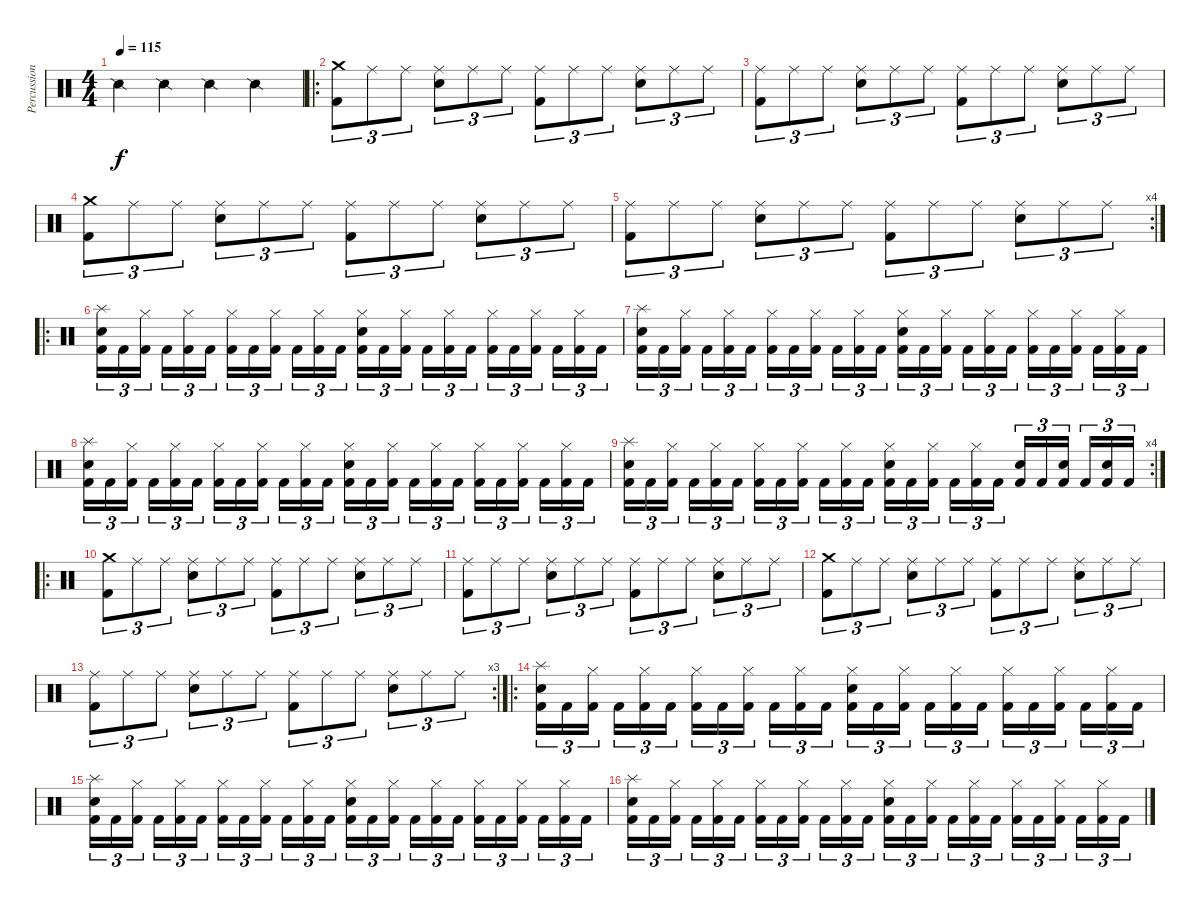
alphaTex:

\track ("Percussions" "Percussion") {instrument percussion}
\staff {score}
\articulation defaults
\ts (4 4)
\tempo 115
\clef neutral
\ks c "Snare (side stick) 2".4{dy f} "Snare (side stick) 2".4 "Snare (side stick) 2".4 "Snare (side stick) 2".4
|
\ro
("Crash medium (hit)" "Kick (hit) 2").8{tu (3 2)} "Ride (middle)".8{tu (3 2)} "Ride (middle)".8{tu (3 2)} ("Ride (middle)" "Snare (hit) 2").8{tu (3 2)} "Ride (middle)".8{tu (3 2)} "Ride (middle)".8{tu (3 2)} ("Ride (middle)" "Kick (hit) 2").8{tu (3 2)} "Ride (middle)".8{tu (3 2)} "Ride (middle)".8{tu (3 2)} ("Ride (middle)" "Snare (hit) 2").8{tu (3 2)} "Ride (middle)".8{tu (3 2)} "Ride (middle)".8{tu (3 2)} |
("Ride (middle)" "Kick (hit) 2").8{tu (3 2)} "Ride (middle)".8{tu (3 2)} "Ride (middle)".8{tu (3 2)} ("Ride (middle)" "Snare (hit) 2").8{tu (3 2)} "Ride (middle)".8{tu (3 2)} "Ride (middle)".8{tu (3 2)} ("Ride (middle)" "Kick (hit) 2").8{tu (3 2)} "Ride (middle)".8{tu (3 2)} "Ride (middle)".8{tu (3 2)} ("Ride (middle)" "Snare (hit) 2").8{tu (3 2)} "Ride (middle)".8{tu (3 2)} "Ride (middle)".8{tu (3 2)} |
("Crash medium (hit)" "Kick (hit) 2").8{tu (3 2)} "Ride (middle)".8{tu (3 2)} "Ride (middle)".8{tu (3 2)} ("Ride (middle)" "Snare (hit) 2").8{tu (3 2)} "Ride (middle)".8{tu (3 2)} "Ride (middle)".8{tu (3 2)} ("Ride (middle)" "Kick (hit) 2").8{tu (3 2)} "Ride (middle)".8{tu (3 2)} "Ride (middle)".8{tu (3 2)} ("Ride (middle)" "Snare (hit) 2").8{tu (3 2)} "Ride (middle)".8{tu (3 2)} "Ride (middle)".8{tu (3 2)} |
\rc 4
("Ride (middle)" "Kick (hit) 2").8{tu (3 2)} "Ride (middle)".8{tu (3 2)} "Ride (middle)".8{tu (3 2)} ("Ride (middle)" "Snare (hit) 2").8{tu (3 2)} "Ride (middle)".8{tu (3 2)} "Ride (middle)".8{tu (3 2)} ("Ride (middle)" "Kick (hit) 2").8{tu (3 2)} "Ride (middle)".8{tu (3 2)} "Ride (middle)".8{tu (3 2)} ("Ride (middle)" "Snare (hit) 2").8{tu (3 2)} "Ride (middle)".8{tu (3 2)} "Ride (middle)".8{tu (3 2)} |
\ro
("Splash (hit)" "Snare (hit) 2" "Kick (hit) 2").16{tu (3 2)} "Kick (hit) 2".16{tu (3 2)} ("Hi-Hat (closed)" "Kick (hit) 2").16{tu (3 2)} "Kick (hit) 2".16{tu (3 2)} ("Hi-Hat (closed)" "Kick (hit) 2").16{tu (3 2)} "Kick (hit) 2".16{tu (3 2)} ("Hi-Hat (closed)" "Kick (hit) 2").16{tu (3 2)} "Kick (hit) 2".16{tu (3 2)} ("Hi-Hat (closed)" "Kick (hit) 2").16{tu (3 2)} "Kick (hit) 2".16{tu (3 2)} ("Hi-Hat (closed)" "Kick (hit) 2").16{tu (3 2)} "Kick (hit) 2".16{tu (3 2)} ("Hi-Hat (closed)" "Snare (hit) 2" "Kick (hit) 2").16{tu (3 2)} "Kick (hit) 2".16{tu (3 2)} ("Hi-Hat (closed)" "Kick (hit) 2").16{tu (3 2)} "Kick (hit) 2".16{tu (3 2)} ("Hi-Hat (closed)" "Kick (hit) 2").16{tu (3 2)} "Kick (hit) 2".16{tu (3 2)} ("Hi-Hat (closed)" "Kick (hit) 2").16{tu (3 2)} "Kick (hit) 2".16{tu (3 2)} ("Hi-Hat (closed)" "Kick (hit) 2").16{tu (3 2)} "Kick (hit) 2".16{tu (3 2)} ("Hi-Hat (closed)" "Kick (hit) 2").16{tu (3 2)} "Kick (hit) 2".16{tu (3 2)} |
("Splash (hit)" "Snare (hit) 2" "Kick (hit) 2").16{tu (3 2)} "Kick (hit) 2".16{tu (3 2)} ("Hi-Hat (closed)" "Kick (hit) 2").16{tu (3 2)} "Kick (hit) 2".16{tu (3 2)} ("Hi-Hat (closed)" "Kick (hit) 2").16{tu (3 2)} "Kick (hit) 2".16{tu (3 2)} ("Hi-Hat (closed)" "Kick (hit) 2").16{tu (3 2)} "Kick (hit) 2".16{tu (3 2)} ("Hi-Hat (closed)" "Kick (hit) 2").16{tu (3 2)} "Kick (hit) 2".16{tu (3 2)} ("Hi-Hat (closed)" "Kick (hit) 2").16{tu (3 2)} "Kick (hit) 2".16{tu (3 2)} ("Hi-Hat (closed)" "Snare (hit) 2" "Kick (hit) 2").16{tu (3 2)} "Kick (hit) 2".16{tu (3 2)} ("Hi-Hat (closed)" "Kick (hit) 2").16{tu (3 2)} "Kick (hit) 2".16{tu (3 2)} ("Hi-Hat (closed)" "Kick (hit) 2").16{tu (3 2)} "Kick (hit) 2".16{tu (3 2)} ("Hi-Hat (closed)" "Kick (hit) 2").16{tu (3 2)} "Kick (hit) 2".16{tu (3 2)} ("Hi-Hat (closed)" "Kick (hit) 2").16{tu (3 2)} "Kick (hit) 2".16{tu (3 2)} ("Hi-Hat (closed)" "Kick (hit) 2").16{tu (3 2)} "Kick (hit) 2".16{tu (3 2)} |
("Splash (hit)" "Snare (hit) 2" "Kick (hit) 2").16{tu (3 2)} "Kick (hit) 2".16{tu (3 2)} ("Hi-Hat (closed)" "Kick (hit) 2").16{tu (3 2)} "Kick (hit) 2".16{tu (3 2)} ("Hi-Hat (closed)" "Kick (hit) 2").16{tu (3 2)} "Kick (hit) 2".16{tu (3 2)} ("Hi-Hat (closed)" "Kick (hit) 2").16{tu (3 2)} "Kick (hit) 2".16{tu (3 2)} ("Hi-Hat (closed)" "Kick (hit) 2").16{tu (3 2)} "Kick (hit) 2".16{tu (3 2)} ("Hi-Hat (closed)" "Kick (hit) 2").16{tu (3 2)} "Kick (hit) 2".16{tu (3 2)} ("Hi-Hat (closed)" "Snare (hit) 2" "Kick (hit) 2").16{tu (3 2)} "Kick (hit) 2".16{tu (3 2)} ("Hi-Hat (closed)" "Kick (hit) 2").16{tu (3 2)} "Kick (hit) 2".16{tu (3 2)} ("Hi-Hat (closed)" "Kick (hit) 2").16{tu (3 2)} "Kick (hit) 2".16{tu (3 2)} ("Hi-Hat (closed)" "Kick (hit) 2").16{tu (3 2)} "Kick (hit) 2".16{tu (3 2)} ("Hi-Hat (closed)" "Kick (hit) 2").16{tu (3 2)} "Kick (hit) 2".16{tu (3 2)} ("Hi-Hat (closed)" "Kick (hit) 2").16{tu (3 2)} "Kick (hit) 2".16{tu (3 2)} |
\rc 4
("Splash (hit)" "Snare (hit) 2" "Kick (hit) 2").16{tu (3 2)} "Kick (hit) 2".16{tu (3 2)} ("Hi-Hat (closed)" "Kick (hit) 2").16{tu (3 2)} "Kick (hit) 2".16{tu (3 2)} ("Hi-Hat (closed)" "Kick (hit) 2").16{tu (3 2)} "Kick (hit) 2".16{tu (3 2)} ("Hi-Hat (closed)" "Kick (hit) 2").16{tu (3 2)} "Kick (hit) 2".16{tu (3 2)} ("Hi-Hat (closed)" "Kick (hit) 2").16{tu (3 2)} "Kick (hit) 2".16{tu (3 2)} ("Hi-Hat (closed)" "Kick (hit) 2").16{tu (3 2)} "Kick (hit) 2".16{tu (3 2)} ("Hi-Hat (closed)" "Snare (hit) 2" "Kick (hit) 2").16{tu (3 2)} "Kick (hit) 2".16{tu (3 2)} ("Hi-Hat (closed)" "Kick (hit) 2").16{tu (3 2)} "Kick (hit) 2".16{tu (3 2)} ("Hi-Hat (closed)" "Kick (hit) 2").16{tu (3 2)} "Kick (hit) 2".16{tu (3 2)} ("Snare (hit) 2" "Kick (hit) 2").16{tu (3 2)} "Kick (hit) 2".16{tu (3 2)} ("Snare (hit) 2" "Kick (hit) 2").16{tu (3 2)} "Kick (hit) 2".16{tu (3 2)} ("Snare (hit) 2" "Kick (hit) 2").16{tu (3 2)} "Kick (hit) 2".16{tu (3 2)} |
\ro
("Crash medium (hit)" "Kick (hit) 2").8{tu (3 2)} "Ride (middle)".8{tu (3 2)} "Ride (middle)".8{tu (3 2)} ("Ride (middle)" "Snare (hit) 2").8{tu (3 2)} "Ride (middle)".8{tu (3 2)} "Ride (middle)".8{tu (3 2)} ("Ride (middle)" "Kick (hit) 2").8{tu (3 2)} "Ride (middle)".8{tu (3 2)} "Ride (middle)".8{tu (3 2)} ("Ride (middle)" "Snare (hit) 2").8{tu (3 2)} "Ride (middle)".8{tu (3 2)} "Ride (middle)".8{tu (3 2)} |
("Ride (middle)" "Kick (hit) 2").8{tu (3 2)} "Ride (middle)".8{tu (3 2)} "Ride (middle)".8{tu (3 2)} ("Ride (middle)" "Snare (hit) 2").8{tu (3 2)} "Ride (middle)".8{tu (3 2)} "Ride (middle)".8{tu (3 2)} ("Ride (middle)" "Kick (hit) 2").8{tu (3 2)} "Ride (middle)".8{tu (3 2)} "Ride (middle)".8{tu (3 2)} ("Ride (middle)" "Snare (hit) 2").8{tu (3 2)} "Ride (middle)".8{tu (3 2)} "Ride (middle)".8{tu (3 2)} |
("Crash medium (hit)" "Kick (hit) 2").8{tu (3 2)} "Ride (middle)".8{tu (3 2)} "Ride (middle)".8{tu (3 2)} ("Ride (middle)" "Snare (hit) 2").8{tu (3 2)} "Ride (middle)".8{tu (3 2)} "Ride (middle)".8{tu (3 2)} ("Ride (middle)" "Kick (hit) 2").8{tu (3 2)} "Ride (middle)".8{tu (3 2)} "Ride (middle)".8{tu (3 2)} ("Ride (middle)" "Snare (hit) 2").8{tu (3 2)} "Ride (middle)".8{tu (3 2)} "Ride (middle)".8{tu (3 2)} |
\rc 3
("Ride (middle)" "Kick (hit) 2").8{tu (3 2)} "Ride (middle)".8{tu (3 2)} "Ride (middle)".8{tu (3 2)} ("Ride (middle)" "Snare (hit) 2").8{tu (3 2)} "Ride (middle)".8{tu (3 2)} "Ride (middle)".8{tu (3 2)} ("Ride (middle)" "Kick (hit) 2").8{tu (3 2)} "Ride (middle)".8{tu (3 2)} "Ride (middle)".8{tu (3 2)} ("Ride (middle)" "Snare (hit) 2").8{tu (3 2)} "Ride (middle)".8{tu (3 2)} "Ride (middle)".8{tu (3 2)} |
\ro
("Splash (hit)" "Snare (hit) 2" "Kick (hit) 2").16{tu (3 2)} "Kick (hit) 2".16{tu (3 2)} ("Hi-Hat (closed)" "Kick (hit) 2").16{tu (3 2)} "Kick (hit) 2".16{tu (3 2)} ("Hi-Hat (closed)" "Kick (hit) 2").16{tu (3 2)} "Kick (hit) 2".16{tu (3 2)} ("Hi-Hat (closed)" "Kick (hit) 2").16{tu (3 2)} "Kick (hit) 2".16{tu (3 2)} ("Hi-Hat (closed)" "Kick (hit) 2").16{tu (3 2)} "Kick (hit) 2".16{tu (3 2)} ("Hi-Hat (closed)" "Kick (hit) 2").16{tu (3 2)} "Kick (hit) 2".16{tu (3 2)} ("Hi-Hat (closed)" "Snare (hit) 2" "Kick (hit) 2").16{tu (3 2)} "Kick (hit) 2".16{tu (3 2)} ("Hi-Hat (closed)" "Kick (hit) 2").16{tu (3 2)} "Kick (hit) 2".16{tu (3 2)} ("Hi-Hat (closed)" "Kick (hit) 2").16{tu (3 2)} "Kick (hit) 2".16{tu (3 2)} ("Hi-Hat (closed)" "Kick (hit) 2").16{tu (3 2)} "Kick (hit) 2".16{tu (3 2)} ("Hi-Hat (closed)" "Kick (hit) 2").16{tu (3 2)} "Kick (hit) 2".16{tu (3 2)} ("Hi-Hat (closed)" "Kick (hit) 2").16{tu (3 2)} "Kick (hit) 2".16{tu (3 2)} |
("Splash (hit)" "Snare (hit) 2" "Kick (hit) 2").16{tu (3 2)} "Kick (hit) 2".16{tu (3 2)} ("Hi-Hat (closed)" "Kick (hit) 2").16{tu (3 2)} "Kick (hit) 2".16{tu (3 2)} ("Hi-Hat (closed)" "Kick (hit) 2").16{tu (3 2)} "Kick (hit) 2".16{tu (3 2)} ("Hi-Hat (closed)" "Kick (hit) 2").16{tu (3 2)} "Kick (hit) 2".16{tu (3 2)} ("Hi-Hat (closed)" "Kick (hit) 2").16{tu (3 2)} "Kick (hit) 2".16{tu (3 2)} ("Hi-Hat (closed)" "Kick (hit) 2").16{tu (3 2)} "Kick (hit) 2".16{tu (3 2)} ("Hi-Hat (closed)" "Snare (hit) 2" "Kick (hit) 2").16{tu (3 2)} "Kick (hit) 2".16{tu (3 2)} ("Hi-Hat (closed)" "Kick (hit) 2").16{tu (3 2)} "Kick (hit) 2".16{tu (3 2)} ("Hi-Hat (closed)" "Kick (hit) 2").16{tu (3 2)} "Kick (hit) 2".16{tu (3 2)} ("Hi-Hat (closed)" "Kick (hit) 2").16{tu (3 2)} "Kick (hit) 2".16{tu (3 2)} ("Hi-Hat (closed)" "Kick (hit) 2").16{tu (3 2)} "Kick (hit) 2".16{tu (3 2)} ("Hi-Hat (closed)" "Kick (hit) 2").16{tu (3 2)} "Kick (hit) 2".16{tu (3 2)} |
("Splash (hit)" "Snare (hit) 2" "Kick (hit) 2").16{tu (3 2)} "Kick (hit) 2".16{tu (3 2)} ("Hi-Hat (closed)" "Kick (hit) 2").16{tu (3 2)} "Kick (hit) 2".16{tu (3 2)} ("Hi-Hat (closed)" "Kick (hit) 2").16{tu (3 2)} "Kick (hit) 2".16{tu (3 2)} ("Hi-Hat (closed)" "Kick (hit) 2").16{tu (3 2)} "Kick (hit) 2".16{tu (3 2)} ("Hi-Hat (closed)" "Kick (hit) 2").16{tu (3 2)} "Kick (hit) 2".16{tu (3 2)} ("Hi-Hat (closed)" "Kick (hit) 2").16{tu (3 2)} "Kick (hit) 2".16{tu (3 2)} ("Hi-Hat (closed)" "Snare (hit) 2" "Kick (hit) 2").16{tu (3 2)} "Kick (hit) 2".16{tu (3 2)} ("Hi-Hat (closed)" "Kick (hit) 2").16{tu (3 2)} "Kick (hit) 2".16{tu (3 2)} ("Hi-Hat (closed)" "Kick (hit) 2").16{tu (3 2)} "Kick (hit) 2".16{tu (3 2)} ("Hi-Hat (closed)" "Kick (hit) 2").16{tu (3 2)} "Kick (hit) 2".16{tu (3 2)} ("Hi-Hat (closed)" "Kick (hit) 2").16{tu (3 2)} "Kick (hit) 2".16{tu (3 2)} ("Hi-Hat (closed)" "Kick (hit) 2").16{tu (3 2)} "Kick (hit) 2".16{tu (3 2)}
